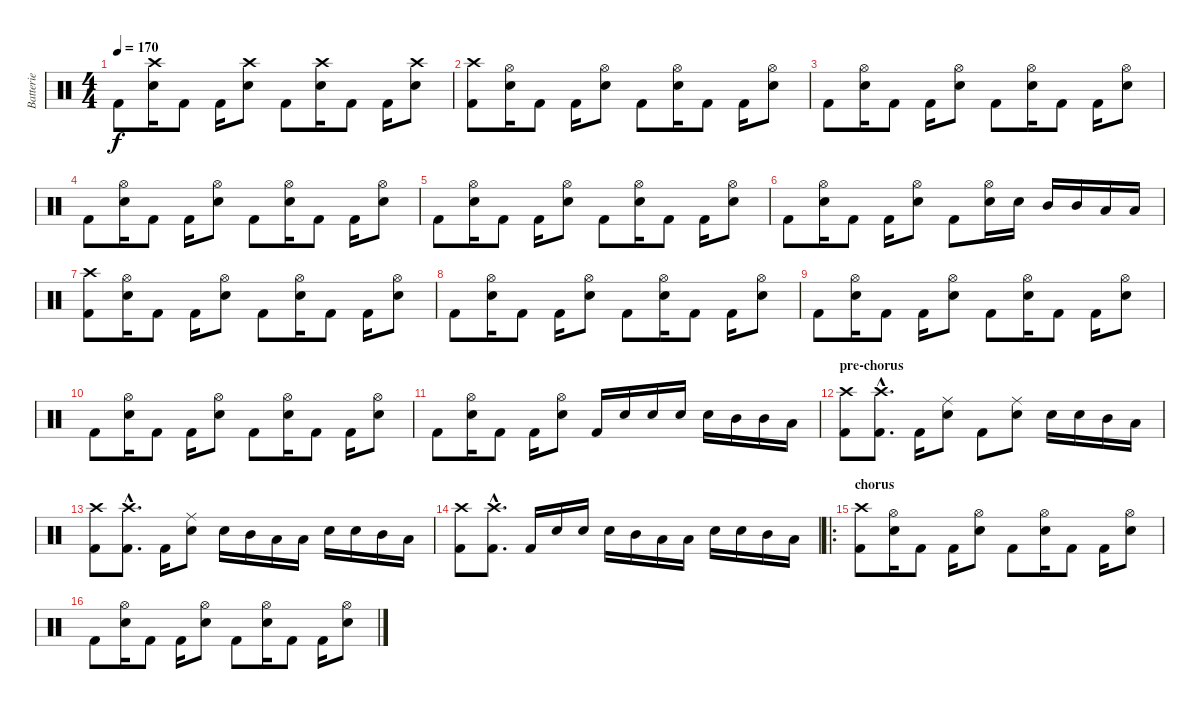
\track ("Batterie" "Batterie") {instrument percussion}
\staff {score}
\articulation defaults
\ts (4 4)
\tempo 170
\clef neutral
\ks c "Kick (hit) 2".8{dy f}
("Crash high (hit)" "Electric Snare (hit)").16 "Kick (hit) 2".8 "Kick (hit) 2".16 ("Crash high (hit)" "Electric Snare (hit)").8 "Kick (hit) 2".8 ("Crash high (hit)" "Electric Snare (hit)").16 "Kick (hit) 2".8 "Kick (hit) 2".16 ("Crash high (hit)" "Electric Snare (hit)").8 |
("Crash high (hit)" "Kick (hit) 2").8 ("Hi-Hat (open)" "Electric Snare (hit)").16 "Kick (hit) 2".8 "Kick (hit) 2".16 ("Hi-Hat (open)" "Electric Snare (hit)").8 "Kick (hit) 2".8 ("Hi-Hat (open)" "Electric Snare (hit)").16 "Kick (hit) 2".8 "Kick (hit) 2".16 ("Hi-Hat (open)" "Electric Snare (hit)").8 |
"Kick (hit) 2".8 ("Hi-Hat (open)" "Electric Snare (hit)").16 "Kick (hit) 2".8 "Kick (hit) 2".16 ("Hi-Hat (open)" "Electric Snare (hit)").8 "Kick (hit) 2".8 ("Hi-Hat (open)" "Electric Snare (hit)").16 "Kick (hit) 2".8 "Kick (hit) 2".16 ("Hi-Hat (open)" "Electric Snare (hit)").8 |
"Kick (hit) 2".8 ("Hi-Hat (open)" "Electric Snare (hit)").16 "Kick (hit) 2".8 "Kick (hit) 2".16 ("Hi-Hat (open)" "Electric Snare (hit)").8 "Kick (hit) 2".8 ("Hi-Hat (open)" "Electric Snare (hit)").16 "Kick (hit) 2".8 "Kick (hit) 2".16 ("Hi-Hat (open)" "Electric Snare (hit)").8 |
"Kick (hit) 2".8 ("Hi-Hat (open)" "Electric Snare (hit)").16 "Kick (hit) 2".8 "Kick (hit) 2".16 ("Hi-Hat (open)" "Electric Snare (hit)").8 "Kick (hit) 2".8 ("Hi-Hat (open)" "Electric Snare (hit)").16 "Kick (hit) 2".8 "Kick (hit) 2".16 ("Hi-Hat (open)" "Electric Snare (hit)").8 |
"Kick (hit) 2".8 ("Hi-Hat (open)" "Electric Snare (hit)").16 "Kick (hit) 2".8 "Kick (hit) 2".16 ("Hi-Hat (open)" "Electric Snare (hit)").8 "Kick (hit) 2".8 ("Hi-Hat (open)" "Electric Snare (hit)").16 "Electric Snare (hit)".16 "Mid Tom (hit)".16 "Mid Tom (hit)".16 "Low Tom (hit)".16 "Low Tom (hit)".16 |
("Crash high (hit)" "Kick (hit) 2").8 ("Hi-Hat (open)" "Electric Snare (hit)").16 "Kick (hit) 2".8 "Kick (hit) 2".16 ("Hi-Hat (open)" "Electric Snare (hit)").8 "Kick (hit) 2".8 ("Hi-Hat (open)" "Electric Snare (hit)").16 "Kick (hit) 2".8 "Kick (hit) 2".16 ("Hi-Hat (open)" "Electric Snare (hit)").8 |
"Kick (hit) 2".8 ("Hi-Hat (open)" "Electric Snare (hit)").16 "Kick (hit) 2".8 "Kick (hit) 2".16 ("Hi-Hat (open)" "Electric Snare (hit)").8 "Kick (hit) 2".8 ("Hi-Hat (open)" "Electric Snare (hit)").16 "Kick (hit) 2".8 "Kick (hit) 2".16 ("Hi-Hat (open)" "Electric Snare (hit)").8 |
"Kick (hit) 2".8 ("Hi-Hat (open)" "Electric Snare (hit)").16 "Kick (hit) 2".8 "Kick (hit) 2".16 ("Hi-Hat (open)" "Electric Snare (hit)").8 "Kick (hit) 2".8 ("Hi-Hat (open)" "Electric Snare (hit)").16 "Kick (hit) 2".8 "Kick (hit) 2".16 ("Hi-Hat (open)" "Electric Snare (hit)").8 |
"Kick (hit) 2".8 ("Hi-Hat (open)" "Electric Snare (hit)").16 "Kick (hit) 2".8 "Kick (hit) 2".16 ("Hi-Hat (open)" "Electric Snare (hit)").8 "Kick (hit) 2".8 ("Hi-Hat (open)" "Electric Snare (hit)").16 "Kick (hit) 2".8 "Kick (hit) 2".16 ("Hi-Hat (open)" "Electric Snare (hit)").8 |
"Kick (hit) 2".8 ("Hi-Hat (open)" "Electric Snare (hit)").16 "Kick (hit) 2".8 "Kick (hit) 2".16 ("Hi-Hat (open)" "Electric Snare (hit)").8 "Kick (hit) 2".16 "Electric Snare (hit)".16 "Electric Snare (hit)".16 "Electric Snare (hit)".16 "Electric Snare (hit)".16 "Mid Tom (hit)".16 "Mid Tom (hit)".16 "Low Tom (hit)".16 |
\section ("" "pre-chorus")
("Crash high (hit)" "Kick (hit) 2").8 ("Crash high (hit)"{hac} "Kick (hit) 2"{hac}).8{d} "Kick (hit) 2".16 ("Ride (middle)" "Electric Snare (hit)").8 "Kick (hit) 2".8 ("Ride (middle)" "Electric Snare (hit)").8 "Electric Snare (hit)".16 "Electric Snare (hit)".16 "Mid Tom (hit)".16 "Low Tom (hit)".16 |
("Crash high (hit)" "Kick (hit) 2").8 ("Crash high (hit)"{hac} "Kick (hit) 2"{hac}).8{d} "Kick (hit) 2".16 ("Ride (middle)" "Electric Snare (hit)").8 "Electric Snare (hit)".16 "Mid Tom (hit)".16 "Low Tom (hit)".16 "Low Tom (hit)".16 "Electric Snare (hit)".16 "Electric Snare (hit)".16 "Mid Tom (hit)".16 "Low Tom (hit)".16 |
("Crash high (hit)" "Kick (hit) 2").8 ("Crash high (hit)"{hac} "Kick (hit) 2"{hac}).8{d} "Kick (hit) 2".16 "Electric Snare (hit)".16 "Electric Snare (hit)".16 "Electric Snare (hit)".16 "Mid Tom (hit)".16 "Low Tom (hit)".16 "Low Tom (hit)".16 "Electric Snare (hit)".16 "Electric Snare (hit)".16 "Mid Tom (hit)".16 "Low Tom (hit)".16 |
\ro
\section ("" "chorus")
("Crash high (hit)" "Kick (hit) 2").8 ("Hi-Hat (open)" "Electric Snare (hit)").16 "Kick (hit) 2".8 "Kick (hit) 2".16 ("Hi-Hat (open)" "Electric Snare (hit)").8 "Kick (hit) 2".8 ("Hi-Hat (open)" "Electric Snare (hit)").16 "Kick (hit) 2".8 "Kick (hit) 2".16 ("Hi-Hat (open)" "Electric Snare (hit)").8 |
"Kick (hit) 2".8 ("Hi-Hat (open)" "Electric Snare (hit)").16 "Kick (hit) 2".8 "Kick (hit) 2".16 ("Hi-Hat (open)" "Electric Snare (hit)").8 "Kick (hit) 2".8 ("Hi-Hat (open)" "Electric Snare (hit)").16 "Kick (hit) 2".8 "Kick (hit) 2".16 ("Hi-Hat (open)" "Electric Snare (hit)").8
